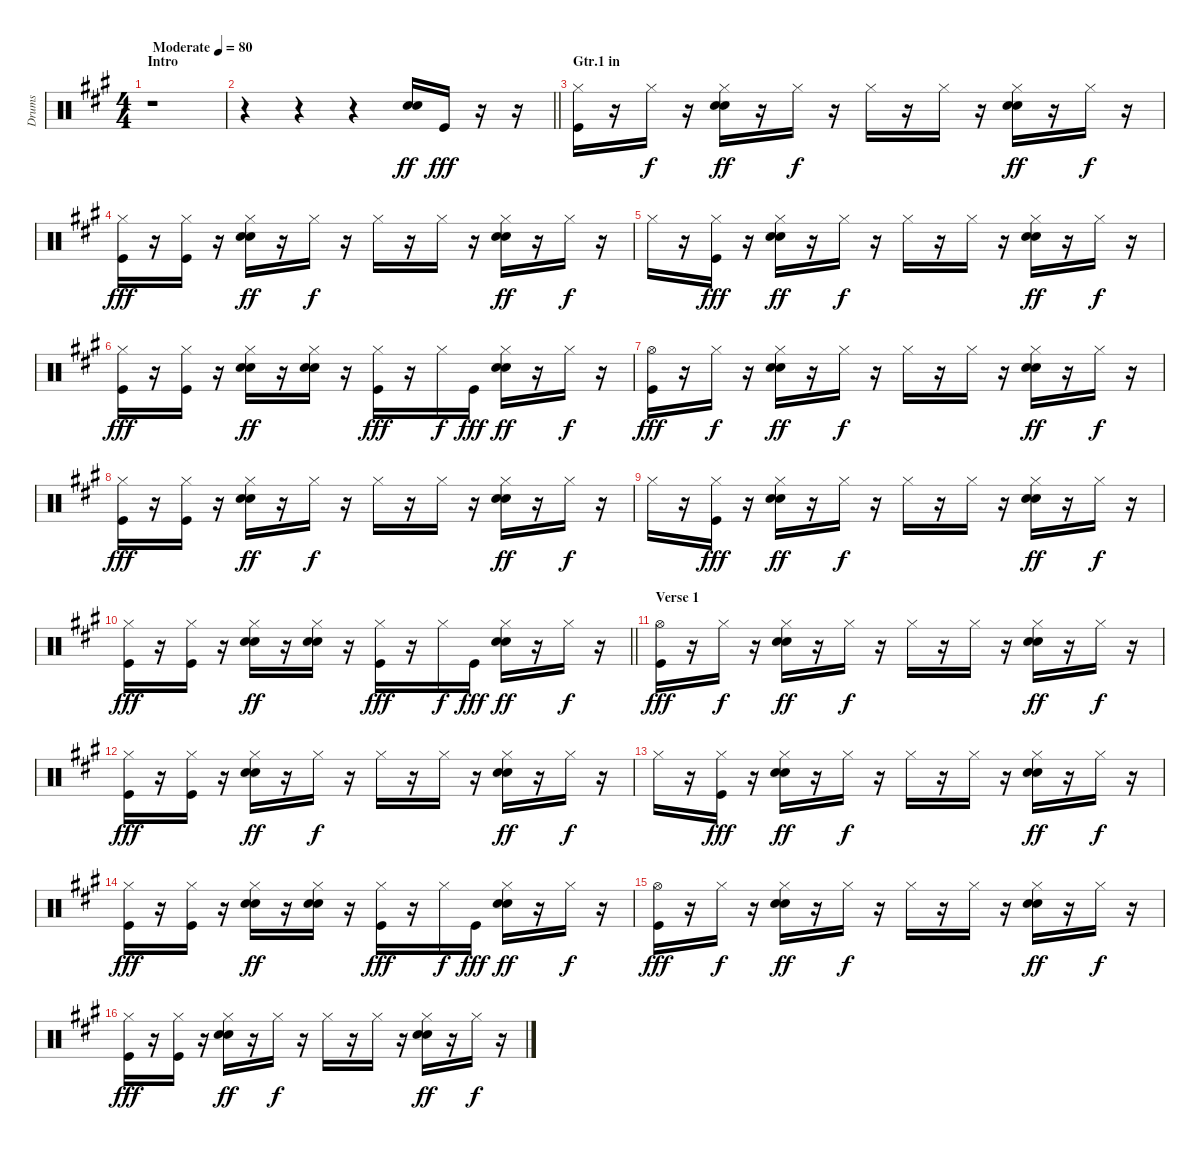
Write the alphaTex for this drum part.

\track ("Drums" "Drums") {instrument percussion}
\staff {score}
\articulation defaults
\ts (4 4)
\section ("" "Intro")
\tempo (80 "Moderate")
\clef neutral
\ks a
r.1{dy ff} |
\barLineRight lightlight
r.4 r.4 r.4 ("Electric Snare (hit)" "Snare (hit) 2").16 "Kick (hit)".16{dy fff} r.16 r.16 |
\section ("" "Gtr.1 in")
("Hi-Hat (closed)" "Kick (hit)").16 r.16 "Hi-Hat (closed)".16{dy f} r.16 ("Hi-Hat (closed)" "Electric Snare (hit)" "Snare (hit) 2").16{dy ff} r.16 "Hi-Hat (closed)".16{dy f} r.16 "Hi-Hat (closed)".16 r.16 "Hi-Hat (closed)".16 r.16 ("Hi-Hat (closed)" "Electric Snare (hit)" "Snare (hit) 2").16{dy ff} r.16 "Hi-Hat (closed)".16{dy f} r.16 |
\ks f#minor
("Hi-Hat (closed)" "Kick (hit)").16{dy fff} r.16 ("Hi-Hat (closed)" "Kick (hit)").16 r.16 ("Hi-Hat (closed)" "Electric Snare (hit)" "Snare (hit) 2").16{dy ff} r.16 "Hi-Hat (closed)".16{dy f} r.16 "Hi-Hat (closed)".16 r.16 "Hi-Hat (closed)".16 r.16 ("Hi-Hat (closed)" "Electric Snare (hit)" "Snare (hit) 2").16{dy ff} r.16 "Hi-Hat (closed)".16{dy f} r.16 |
"Hi-Hat (closed)".16 r.16 ("Hi-Hat (closed)" "Kick (hit)").16{dy fff} r.16 ("Hi-Hat (closed)" "Electric Snare (hit)" "Snare (hit) 2").16{dy ff} r.16 "Hi-Hat (closed)".16{dy f} r.16 "Hi-Hat (closed)".16 r.16 "Hi-Hat (closed)".16 r.16 ("Hi-Hat (closed)" "Electric Snare (hit)" "Snare (hit) 2").16{dy ff} r.16 "Hi-Hat (closed)".16{dy f} r.16 |
("Hi-Hat (closed)" "Kick (hit)").16{dy fff} r.16 ("Hi-Hat (closed)" "Kick (hit)").16 r.16 ("Hi-Hat (closed)" "Electric Snare (hit)" "Snare (hit) 2").16{dy ff} r.16 ("Hi-Hat (closed)" "Electric Snare (hit)" "Snare (hit) 2").16 r.16 ("Hi-Hat (closed)" "Kick (hit)").16{dy fff} r.16 "Hi-Hat (closed)".16{dy f} "Kick (hit)".16{dy fff} ("Hi-Hat (closed)" "Electric Snare (hit)" "Snare (hit) 2").16{dy ff} r.16 "Hi-Hat (closed)".16{dy f} r.16 |
\ks a
("Hi-Hat (open)" "Kick (hit)").16{dy fff} r.16 "Hi-Hat (closed)".16{dy f} r.16 ("Hi-Hat (closed)" "Electric Snare (hit)" "Snare (hit) 2").16{dy ff} r.16 "Hi-Hat (closed)".16{dy f} r.16 "Hi-Hat (closed)".16 r.16 "Hi-Hat (closed)".16 r.16 ("Hi-Hat (closed)" "Electric Snare (hit)" "Snare (hit) 2").16{dy ff} r.16 "Hi-Hat (closed)".16{dy f} r.16 |
\ks f#minor
("Hi-Hat (closed)" "Kick (hit)").16{dy fff} r.16 ("Hi-Hat (closed)" "Kick (hit)").16 r.16 ("Hi-Hat (closed)" "Electric Snare (hit)" "Snare (hit) 2").16{dy ff} r.16 "Hi-Hat (closed)".16{dy f} r.16 "Hi-Hat (closed)".16 r.16 "Hi-Hat (closed)".16 r.16 ("Hi-Hat (closed)" "Electric Snare (hit)" "Snare (hit) 2").16{dy ff} r.16 "Hi-Hat (closed)".16{dy f} r.16 |
"Hi-Hat (closed)".16 r.16 ("Hi-Hat (closed)" "Kick (hit)").16{dy fff} r.16 ("Hi-Hat (closed)" "Electric Snare (hit)" "Snare (hit) 2").16{dy ff} r.16 "Hi-Hat (closed)".16{dy f} r.16 "Hi-Hat (closed)".16 r.16 "Hi-Hat (closed)".16 r.16 ("Hi-Hat (closed)" "Electric Snare (hit)" "Snare (hit) 2").16{dy ff} r.16 "Hi-Hat (closed)".16{dy f} r.16 |
\barLineRight lightlight
("Hi-Hat (closed)" "Kick (hit)").16{dy fff} r.16 ("Hi-Hat (closed)" "Kick (hit)").16 r.16 ("Hi-Hat (closed)" "Electric Snare (hit)" "Snare (hit) 2").16{dy ff} r.16 ("Hi-Hat (closed)" "Electric Snare (hit)" "Snare (hit) 2").16 r.16 ("Hi-Hat (closed)" "Kick (hit)").16{dy fff} r.16 "Hi-Hat (closed)".16{dy f} "Kick (hit)".16{dy fff} ("Hi-Hat (closed)" "Electric Snare (hit)" "Snare (hit) 2").16{dy ff} r.16 "Hi-Hat (closed)".16{dy f} r.16 |
\section ("" "Verse 1")
\ks a
("Hi-Hat (open)" "Kick (hit)").16{dy fff} r.16 "Hi-Hat (closed)".16{dy f} r.16 ("Hi-Hat (closed)" "Electric Snare (hit)" "Snare (hit) 2").16{dy ff} r.16 "Hi-Hat (closed)".16{dy f} r.16 "Hi-Hat (closed)".16 r.16 "Hi-Hat (closed)".16 r.16 ("Hi-Hat (closed)" "Electric Snare (hit)" "Snare (hit) 2").16{dy ff} r.16 "Hi-Hat (closed)".16{dy f} r.16 |
\ks f#minor
("Hi-Hat (closed)" "Kick (hit)").16{dy fff} r.16 ("Hi-Hat (closed)" "Kick (hit)").16 r.16 ("Hi-Hat (closed)" "Electric Snare (hit)" "Snare (hit) 2").16{dy ff} r.16 "Hi-Hat (closed)".16{dy f} r.16 "Hi-Hat (closed)".16 r.16 "Hi-Hat (closed)".16 r.16 ("Hi-Hat (closed)" "Electric Snare (hit)" "Snare (hit) 2").16{dy ff} r.16 "Hi-Hat (closed)".16{dy f} r.16 |
"Hi-Hat (closed)".16 r.16 ("Hi-Hat (closed)" "Kick (hit)").16{dy fff} r.16 ("Hi-Hat (closed)" "Electric Snare (hit)" "Snare (hit) 2").16{dy ff} r.16 "Hi-Hat (closed)".16{dy f} r.16 "Hi-Hat (closed)".16 r.16 "Hi-Hat (closed)".16 r.16 ("Hi-Hat (closed)" "Electric Snare (hit)" "Snare (hit) 2").16{dy ff} r.16 "Hi-Hat (closed)".16{dy f} r.16 |
("Hi-Hat (closed)" "Kick (hit)").16{dy fff} r.16 ("Hi-Hat (closed)" "Kick (hit)").16 r.16 ("Hi-Hat (closed)" "Electric Snare (hit)" "Snare (hit) 2").16{dy ff} r.16 ("Hi-Hat (closed)" "Electric Snare (hit)" "Snare (hit) 2").16 r.16 ("Hi-Hat (closed)" "Kick (hit)").16{dy fff} r.16 "Hi-Hat (closed)".16{dy f} "Kick (hit)".16{dy fff} ("Hi-Hat (closed)" "Electric Snare (hit)" "Snare (hit) 2").16{dy ff} r.16 "Hi-Hat (closed)".16{dy f} r.16 |
\ks a
("Hi-Hat (open)" "Kick (hit)").16{dy fff} r.16 "Hi-Hat (closed)".16{dy f} r.16 ("Hi-Hat (closed)" "Electric Snare (hit)" "Snare (hit) 2").16{dy ff} r.16 "Hi-Hat (closed)".16{dy f} r.16 "Hi-Hat (closed)".16 r.16 "Hi-Hat (closed)".16 r.16 ("Hi-Hat (closed)" "Electric Snare (hit)" "Snare (hit) 2").16{dy ff} r.16 "Hi-Hat (closed)".16{dy f} r.16 |
\ks f#minor
("Hi-Hat (closed)" "Kick (hit)").16{dy fff} r.16 ("Hi-Hat (closed)" "Kick (hit)").16 r.16 ("Hi-Hat (closed)" "Electric Snare (hit)" "Snare (hit) 2").16{dy ff} r.16 "Hi-Hat (closed)".16{dy f} r.16 "Hi-Hat (closed)".16 r.16 "Hi-Hat (closed)".16 r.16 ("Hi-Hat (closed)" "Electric Snare (hit)" "Snare (hit) 2").16{dy ff} r.16 "Hi-Hat (closed)".16{dy f} r.16
